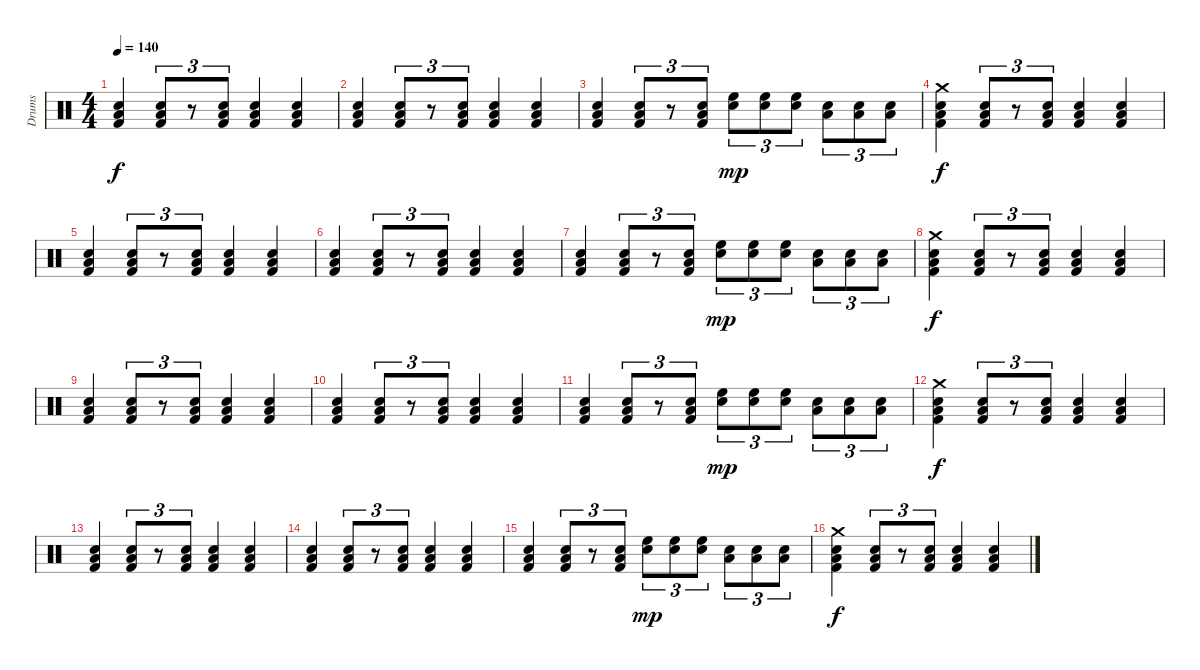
\track ("Drums" "Drums") {instrument percussion}
\staff {score}
\articulation defaults
\ts (4 4)
\tempo 140
\clef neutral
\ks c
("Kick (hit) 2" "Snare (hit) 2" "Low Floor Tom (hit)").4{dy f} ("Kick (hit) 2" "Snare (hit) 2" "Low Floor Tom (hit)").8{tu (3 2)} r.8{tu (3 2)} ("Kick (hit) 2" "Snare (hit) 2" "Low Floor Tom (hit)").8{tu (3 2)} ("Kick (hit) 2" "Snare (hit) 2" "Low Floor Tom (hit)").4 ("Kick (hit) 2" "Snare (hit) 2" "Low Floor Tom (hit)").4 |
("Kick (hit) 2" "Snare (hit) 2" "Low Floor Tom (hit)").4 ("Kick (hit) 2" "Snare (hit) 2" "Low Floor Tom (hit)").8{tu (3 2)} r.8{tu (3 2)} ("Kick (hit) 2" "Snare (hit) 2" "Low Floor Tom (hit)").8{tu (3 2)} ("Kick (hit) 2" "Snare (hit) 2" "Low Floor Tom (hit)").4 ("Kick (hit) 2" "Snare (hit) 2" "Low Floor Tom (hit)").4 |
("Kick (hit) 2" "Snare (hit) 2" "Low Floor Tom (hit)").4 ("Kick (hit) 2" "Snare (hit) 2" "Low Floor Tom (hit)").8{tu (3 2)} r.8{tu (3 2)} ("Kick (hit) 2" "Snare (hit) 2" "Low Floor Tom (hit)").8{tu (3 2)} ("Snare (hit) 2" "High Floor Tom (hit)").8{tu (3 2) dy mp} ("Snare (hit) 2" "High Floor Tom (hit)").8{tu (3 2)} ("Snare (hit) 2" "High Floor Tom (hit)").8{tu (3 2)} ("Snare (hit) 2" "Low Tom (hit)").8{tu (3 2)} ("Snare (hit) 2" "Low Tom (hit)").8{tu (3 2)} ("Snare (hit) 2" "Low Tom (hit)").8{tu (3 2)} |
("Kick (hit) 2" "Snare (hit) 2" "Low Floor Tom (hit)" "Crash medium (hit)").4{dy f} ("Kick (hit) 2" "Snare (hit) 2" "Low Floor Tom (hit)").8{tu (3 2)} r.8{tu (3 2)} ("Kick (hit) 2" "Snare (hit) 2" "Low Floor Tom (hit)").8{tu (3 2)} ("Kick (hit) 2" "Snare (hit) 2" "Low Floor Tom (hit)").4 ("Kick (hit) 2" "Snare (hit) 2" "Low Floor Tom (hit)").4 |
("Kick (hit) 2" "Snare (hit) 2" "Low Floor Tom (hit)").4 ("Kick (hit) 2" "Snare (hit) 2" "Low Floor Tom (hit)").8{tu (3 2)} r.8{tu (3 2)} ("Kick (hit) 2" "Snare (hit) 2" "Low Floor Tom (hit)").8{tu (3 2)} ("Kick (hit) 2" "Snare (hit) 2" "Low Floor Tom (hit)").4 ("Kick (hit) 2" "Snare (hit) 2" "Low Floor Tom (hit)").4 |
("Kick (hit) 2" "Snare (hit) 2" "Low Floor Tom (hit)").4 ("Kick (hit) 2" "Snare (hit) 2" "Low Floor Tom (hit)").8{tu (3 2)} r.8{tu (3 2)} ("Kick (hit) 2" "Snare (hit) 2" "Low Floor Tom (hit)").8{tu (3 2)} ("Kick (hit) 2" "Snare (hit) 2" "Low Floor Tom (hit)").4 ("Kick (hit) 2" "Snare (hit) 2" "Low Floor Tom (hit)").4 |
("Kick (hit) 2" "Snare (hit) 2" "Low Floor Tom (hit)").4 ("Kick (hit) 2" "Snare (hit) 2" "Low Floor Tom (hit)").8{tu (3 2)} r.8{tu (3 2)} ("Kick (hit) 2" "Snare (hit) 2" "Low Floor Tom (hit)").8{tu (3 2)} ("Snare (hit) 2" "High Floor Tom (hit)").8{tu (3 2) dy mp} ("Snare (hit) 2" "High Floor Tom (hit)").8{tu (3 2)} ("Snare (hit) 2" "High Floor Tom (hit)").8{tu (3 2)} ("Snare (hit) 2" "Low Tom (hit)").8{tu (3 2)} ("Snare (hit) 2" "Low Tom (hit)").8{tu (3 2)} ("Snare (hit) 2" "Low Tom (hit)").8{tu (3 2)} |
("Kick (hit) 2" "Snare (hit) 2" "Low Floor Tom (hit)" "Crash medium (hit)").4{dy f} ("Kick (hit) 2" "Snare (hit) 2" "Low Floor Tom (hit)").8{tu (3 2)} r.8{tu (3 2)} ("Kick (hit) 2" "Snare (hit) 2" "Low Floor Tom (hit)").8{tu (3 2)} ("Kick (hit) 2" "Snare (hit) 2" "Low Floor Tom (hit)").4 ("Kick (hit) 2" "Snare (hit) 2" "Low Floor Tom (hit)").4 |
("Kick (hit) 2" "Snare (hit) 2" "Low Floor Tom (hit)").4 ("Kick (hit) 2" "Snare (hit) 2" "Low Floor Tom (hit)").8{tu (3 2)} r.8{tu (3 2)} ("Kick (hit) 2" "Snare (hit) 2" "Low Floor Tom (hit)").8{tu (3 2)} ("Kick (hit) 2" "Snare (hit) 2" "Low Floor Tom (hit)").4 ("Kick (hit) 2" "Snare (hit) 2" "Low Floor Tom (hit)").4 |
("Kick (hit) 2" "Snare (hit) 2" "Low Floor Tom (hit)").4 ("Kick (hit) 2" "Snare (hit) 2" "Low Floor Tom (hit)").8{tu (3 2)} r.8{tu (3 2)} ("Kick (hit) 2" "Snare (hit) 2" "Low Floor Tom (hit)").8{tu (3 2)} ("Kick (hit) 2" "Snare (hit) 2" "Low Floor Tom (hit)").4 ("Kick (hit) 2" "Snare (hit) 2" "Low Floor Tom (hit)").4 |
("Kick (hit) 2" "Snare (hit) 2" "Low Floor Tom (hit)").4 ("Kick (hit) 2" "Snare (hit) 2" "Low Floor Tom (hit)").8{tu (3 2)} r.8{tu (3 2)} ("Kick (hit) 2" "Snare (hit) 2" "Low Floor Tom (hit)").8{tu (3 2)} ("Snare (hit) 2" "High Floor Tom (hit)").8{tu (3 2) dy mp} ("Snare (hit) 2" "High Floor Tom (hit)").8{tu (3 2)} ("Snare (hit) 2" "High Floor Tom (hit)").8{tu (3 2)} ("Snare (hit) 2" "Low Tom (hit)").8{tu (3 2)} ("Snare (hit) 2" "Low Tom (hit)").8{tu (3 2)} ("Snare (hit) 2" "Low Tom (hit)").8{tu (3 2)} |
("Kick (hit) 2" "Snare (hit) 2" "Low Floor Tom (hit)" "Crash medium (hit)").4{dy f} ("Kick (hit) 2" "Snare (hit) 2" "Low Floor Tom (hit)").8{tu (3 2)} r.8{tu (3 2)} ("Kick (hit) 2" "Snare (hit) 2" "Low Floor Tom (hit)").8{tu (3 2)} ("Kick (hit) 2" "Snare (hit) 2" "Low Floor Tom (hit)").4 ("Kick (hit) 2" "Snare (hit) 2" "Low Floor Tom (hit)").4 |
("Kick (hit) 2" "Snare (hit) 2" "Low Floor Tom (hit)").4 ("Kick (hit) 2" "Snare (hit) 2" "Low Floor Tom (hit)").8{tu (3 2)} r.8{tu (3 2)} ("Kick (hit) 2" "Snare (hit) 2" "Low Floor Tom (hit)").8{tu (3 2)} ("Kick (hit) 2" "Snare (hit) 2" "Low Floor Tom (hit)").4 ("Kick (hit) 2" "Snare (hit) 2" "Low Floor Tom (hit)").4 |
("Kick (hit) 2" "Snare (hit) 2" "Low Floor Tom (hit)").4 ("Kick (hit) 2" "Snare (hit) 2" "Low Floor Tom (hit)").8{tu (3 2)} r.8{tu (3 2)} ("Kick (hit) 2" "Snare (hit) 2" "Low Floor Tom (hit)").8{tu (3 2)} ("Kick (hit) 2" "Snare (hit) 2" "Low Floor Tom (hit)").4 ("Kick (hit) 2" "Snare (hit) 2" "Low Floor Tom (hit)").4 |
("Kick (hit) 2" "Snare (hit) 2" "Low Floor Tom (hit)").4 ("Kick (hit) 2" "Snare (hit) 2" "Low Floor Tom (hit)").8{tu (3 2)} r.8{tu (3 2)} ("Kick (hit) 2" "Snare (hit) 2" "Low Floor Tom (hit)").8{tu (3 2)} ("Snare (hit) 2" "High Floor Tom (hit)").8{tu (3 2) dy mp} ("Snare (hit) 2" "High Floor Tom (hit)").8{tu (3 2)} ("Snare (hit) 2" "High Floor Tom (hit)").8{tu (3 2)} ("Snare (hit) 2" "Low Tom (hit)").8{tu (3 2)} ("Snare (hit) 2" "Low Tom (hit)").8{tu (3 2)} ("Snare (hit) 2" "Low Tom (hit)").8{tu (3 2)} |
("Kick (hit) 2" "Snare (hit) 2" "Low Floor Tom (hit)" "Crash medium (hit)").4{dy f} ("Kick (hit) 2" "Snare (hit) 2" "Low Floor Tom (hit)").8{tu (3 2)} r.8{tu (3 2)} ("Kick (hit) 2" "Snare (hit) 2" "Low Floor Tom (hit)").8{tu (3 2)} ("Kick (hit) 2" "Snare (hit) 2" "Low Floor Tom (hit)").4 ("Kick (hit) 2" "Snare (hit) 2" "Low Floor Tom (hit)").4
